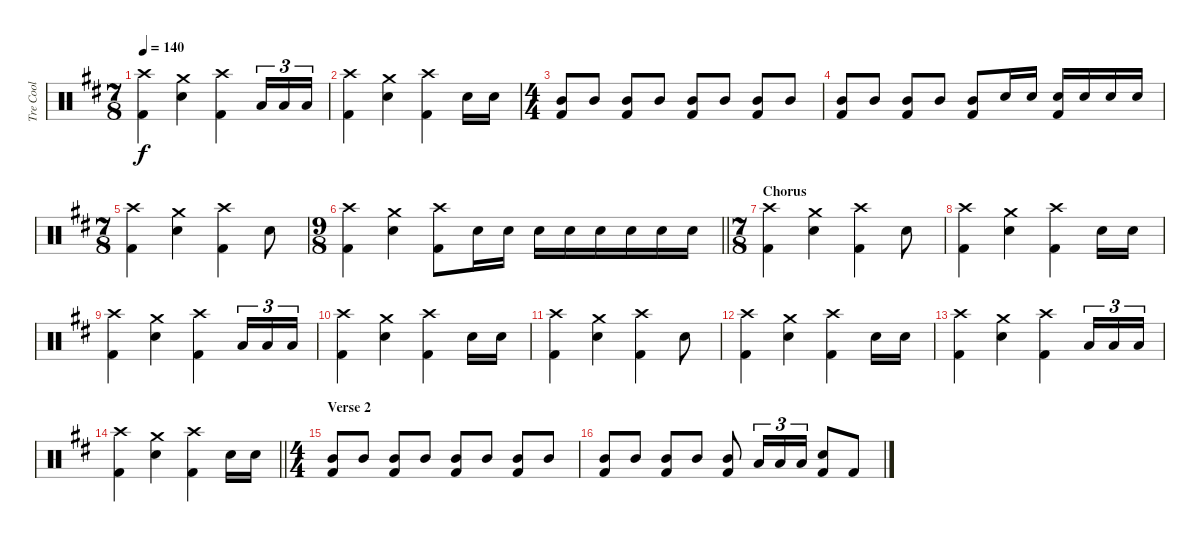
\track ("Tre Cool" "Tre Cool") {instrument percussion}
\staff {score}
\articulation defaults
\ts (7 8)
\tempo 140
\clef neutral
\ks d
("Crash high (hit)" "Kick (hit) 2").4{dy f} ("Crash medium (hit)" "Electric Snare (hit)").4 ("Crash high (hit)" "Kick (hit) 2").4 "Low Tom (hit)".16{tu (3 2)} "Low Tom (hit)".16{tu (3 2)} "Low Tom (hit)".16{tu (3 2)} |
("Crash high (hit)" "Kick (hit) 2").4 ("Crash medium (hit)" "Electric Snare (hit)").4 ("Crash high (hit)" "Kick (hit) 2").4 "Electric Snare (hit)".16 "Electric Snare (hit)".16 |
\ts (4 4)
("Mid Tom (hit)" "Kick (hit) 2").8 "Mid Tom (hit)".8 ("Mid Tom (hit)" "Kick (hit) 2").8 "Mid Tom (hit)".8 ("Mid Tom (hit)" "Kick (hit) 2").8 "Mid Tom (hit)".8 ("Mid Tom (hit)" "Kick (hit) 2").8 "Mid Tom (hit)".8 |
("Mid Tom (hit)" "Kick (hit) 2").8 "Mid Tom (hit)".8 ("Mid Tom (hit)" "Kick (hit) 2").8 "Mid Tom (hit)".8 ("Mid Tom (hit)" "Kick (hit) 2").8 "Electric Snare (hit)".16 "Electric Snare (hit)".16 ("Electric Snare (hit)" "Kick (hit) 2").16 "Electric Snare (hit)".16 "Electric Snare (hit)".16 "Electric Snare (hit)".16 |
\ts (7 8)
("Crash high (hit)" "Kick (hit) 2").4 ("Crash medium (hit)" "Electric Snare (hit)").4 ("Crash high (hit)" "Kick (hit) 2").4 "Electric Snare (hit)".8 |
\ts (9 8)
\barLineRight lightlight
("Crash high (hit)" "Kick (hit) 2").4 ("Crash medium (hit)" "Electric Snare (hit)").4 ("Crash high (hit)" "Kick (hit) 2").8 "Electric Snare (hit)".16 "Electric Snare (hit)".16 "Electric Snare (hit)".16 "Electric Snare (hit)".16 "Electric Snare (hit)".16 "Electric Snare (hit)".16 "Electric Snare (hit)".16 "Electric Snare (hit)".16 |
\ts (7 8)
\section ("" "Chorus")
("Crash high (hit)" "Kick (hit) 2").4 ("Crash medium (hit)" "Electric Snare (hit)").4 ("Crash high (hit)" "Kick (hit) 2").4 "Electric Snare (hit)".8 |
("Crash high (hit)" "Kick (hit) 2").4 ("Crash medium (hit)" "Electric Snare (hit)").4 ("Crash high (hit)" "Kick (hit) 2").4 "Electric Snare (hit)".16 "Electric Snare (hit)".16 |
("Kick (hit) 2" "Crash high (hit)").4 ("Electric Snare (hit)" "Crash medium (hit)").4 ("Kick (hit) 2" "Crash high (hit)").4 "Low Tom (hit)".16{tu (3 2)} "Low Tom (hit)".16{tu (3 2)} "Low Tom (hit)".16{tu (3 2)} |
("Crash high (hit)" "Kick (hit) 2").4 ("Crash medium (hit)" "Electric Snare (hit)").4 ("Crash high (hit)" "Kick (hit) 2").4 "Electric Snare (hit)".16 "Electric Snare (hit)".16 |
("Crash high (hit)" "Kick (hit) 2").4 ("Crash medium (hit)" "Electric Snare (hit)").4 ("Crash high (hit)" "Kick (hit) 2").4 "Electric Snare (hit)".8 |
("Crash high (hit)" "Kick (hit) 2").4 ("Crash medium (hit)" "Electric Snare (hit)").4 ("Crash high (hit)" "Kick (hit) 2").4 "Electric Snare (hit)".16 "Electric Snare (hit)".16 |
("Kick (hit) 2" "Crash high (hit)").4 ("Electric Snare (hit)" "Crash medium (hit)").4 ("Kick (hit) 2" "Crash high (hit)").4 "Low Tom (hit)".16{tu (3 2)} "Low Tom (hit)".16{tu (3 2)} "Low Tom (hit)".16{tu (3 2)} |
\barLineRight lightlight
("Crash high (hit)" "Kick (hit) 2").4 ("Crash medium (hit)" "Electric Snare (hit)").4 ("Crash high (hit)" "Kick (hit) 2").4 "Electric Snare (hit)".16 "Electric Snare (hit)".16 |
\ts (4 4)
\section ("" "Verse 2")
("Mid Tom (hit)" "Kick (hit) 2").8 "Mid Tom (hit)".8 ("Mid Tom (hit)" "Kick (hit) 2").8 "Mid Tom (hit)".8 ("Mid Tom (hit)" "Kick (hit) 2").8 "Mid Tom (hit)".8 ("Mid Tom (hit)" "Kick (hit) 2").8 "Mid Tom (hit)".8 |
("Mid Tom (hit)" "Kick (hit) 2").8 "Mid Tom (hit)".8 ("Mid Tom (hit)" "Kick (hit) 2").8 "Mid Tom (hit)".8 ("Mid Tom (hit)" "Kick (hit) 2").8 "Low Tom (hit)".16{tu (3 2)} "Low Tom (hit)".16{tu (3 2)} "Low Tom (hit)".16{tu (3 2)} ("Electric Snare (hit)" "Kick (hit) 2").8 "Kick (hit) 2".8
